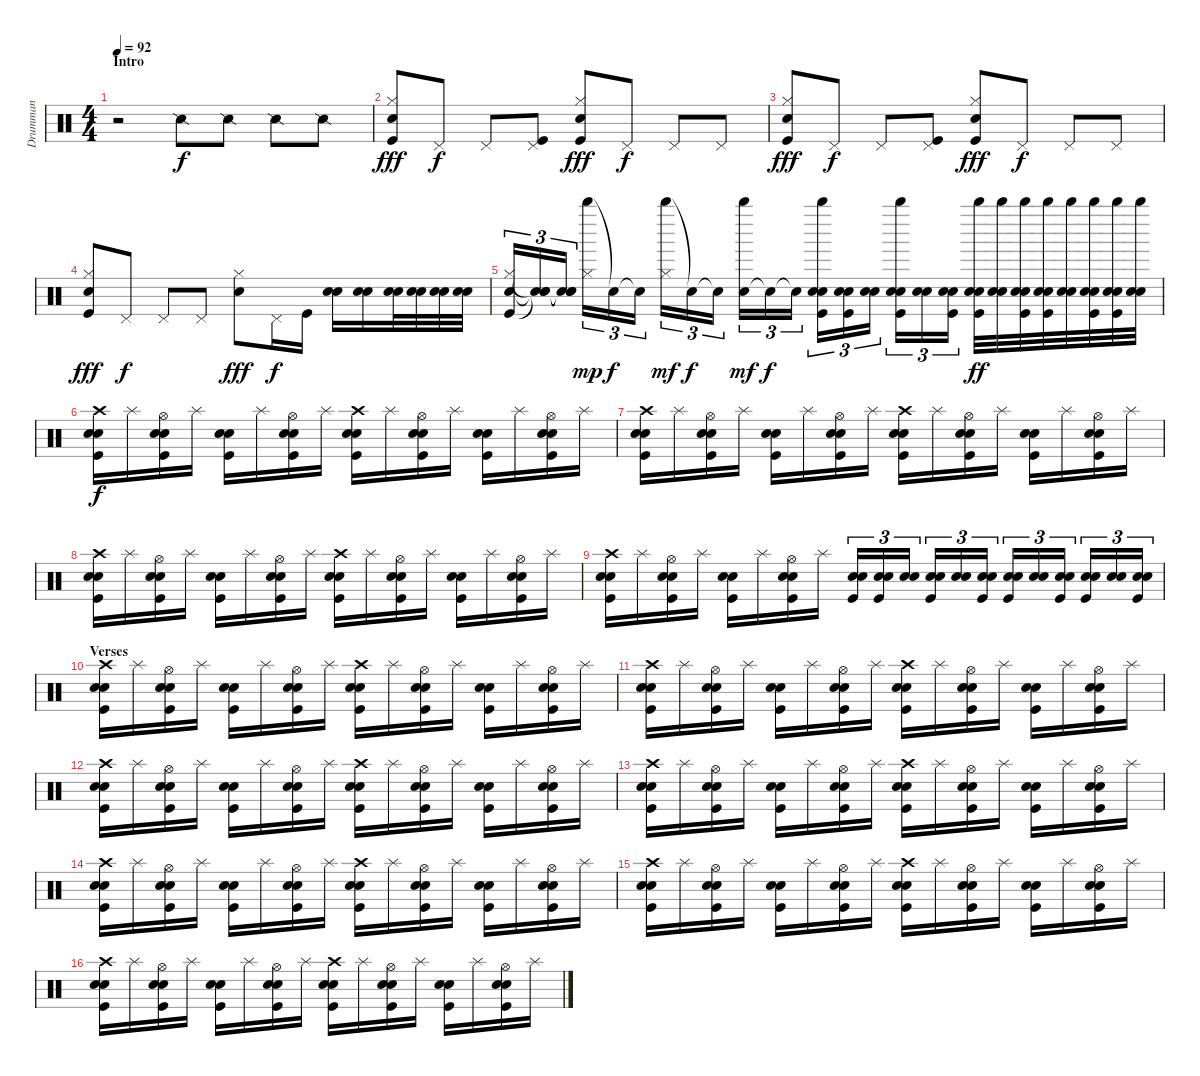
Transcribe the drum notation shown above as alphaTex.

\track ("Drumman" "Drumman") {instrument percussion}
\staff {score}
\articulation defaults
\ts (4 4)
\section ("" "Intro")
\tempo 92
\clef neutral
\ks c
r.2{dy f} "Snare (side stick) 2".8 "Snare (side stick) 2".8 "Snare (side stick) 2".8 "Snare (side stick) 2".8 |
("Hand Clap (hit)" "Hi-Hat (closed)" "Kick (hit)").8{dy fff} "Pedal Hi-Hat (hit)".8{dy f} "Pedal Hi-Hat (hit)".8 ("Pedal Hi-Hat (hit)" "Kick (hit)").8 ("Hand Clap (hit)" "Hi-Hat (closed)" "Kick (hit)").8{dy fff} "Pedal Hi-Hat (hit)".8{dy f} "Pedal Hi-Hat (hit)".8 "Pedal Hi-Hat (hit)".8 |
("Hand Clap (hit)" "Hi-Hat (closed)" "Kick (hit)").8{dy fff} "Pedal Hi-Hat (hit)".8{dy f} "Pedal Hi-Hat (hit)".8 ("Pedal Hi-Hat (hit)" "Kick (hit)").8 ("Hand Clap (hit)" "Hi-Hat (closed)" "Kick (hit)").8{dy fff} "Pedal Hi-Hat (hit)".8{dy f} "Pedal Hi-Hat (hit)".8 "Pedal Hi-Hat (hit)".8 |
("Hand Clap (hit)" "Hi-Hat (closed)" "Kick (hit)").8{dy fff} "Pedal Hi-Hat (hit)".8{dy f} "Pedal Hi-Hat (hit)".8 "Pedal Hi-Hat (hit)".8 ("Hand Clap (hit)" "Hi-Hat (closed)").8{dy fff} "Pedal Hi-Hat (hit)".16{dy f} "Kick (hit)".16 ("Snare (hit) 2" "Electric Snare (hit)").16 ("Snare (hit) 2" "Electric Snare (hit)").16 ("Snare (hit) 2" "Electric Snare (hit)").32 ("Snare (hit) 2" "Electric Snare (hit)").32 ("Snare (hit) 2" "Electric Snare (hit)").32 ("Snare (hit) 2" "Electric Snare (hit)").32 |
("Hand Clap (hit)" "Hi-Hat (closed)" "Kick (hit)").16{tu (3 2)} ("Snare (hit)"{t} "Snare (hit)"{t} "Snare (hit)"{t}).16{tu (3 2)} ("Snare (hit)"{t} "Snare (hit)"{t} "Snare (hit)"{t}).16{tu (3 2)} ("Whistle high (hit)" "Hi-Hat (closed)").16{tu (3 2) dy mp} "Snare (hit)"{t}.16{tu (3 2) dy f} "Snare (hit)"{t}.16{tu (3 2)} ("Whistle high (hit)" "Hi-Hat (closed)").16{tu (3 2) dy mf} "Snare (hit)"{t}.16{tu (3 2) dy f} "Snare (hit)"{t}.16{tu (3 2)} ("Hand Clap (hit)" "Whistle high (hit)").16{tu (3 2) dy mf} "Snare (hit)"{t}.16{tu (3 2) dy f} "Snare (hit)"{t}.16{tu (3 2)} ("Whistle high (hit)" "Snare (hit) 2" "Electric Snare (hit)" "Kick (hit)").16{tu (3 2)} ("Snare (hit) 2" "Electric Snare (hit)" "Kick (hit)").16{tu (3 2)} ("Snare (hit) 2" "Electric Snare (hit)").16{tu (3 2)} ("Whistle high (hit)" "Snare (hit) 2" "Electric Snare (hit)" "Kick (hit)").16{tu (3 2)} ("Snare (hit) 2" "Electric Snare (hit)").16{tu (3 2)} ("Snare (hit) 2" "Electric Snare (hit)" "Kick (hit)").16{tu (3 2)} ("Whistle high (hit)" "Snare (hit) 2" "Electric Snare (hit)" "Kick (hit)").32{dy ff balance 16} ("Whistle high (hit)" "Snare (hit) 2" "Electric Snare (hit)").32 ("Whistle high (hit)" "Snare (hit) 2" "Electric Snare (hit)" "Kick (hit)").32{balance 10} ("Whistle high (hit)" "Snare (hit) 2" "Electric Snare (hit)" "Kick (hit)").32 ("Whistle high (hit)" "Snare (hit) 2" "Electric Snare (hit)").32{balance 4} ("Whistle high (hit)" "Snare (hit) 2" "Electric Snare (hit)" "Kick (hit)").32 ("Whistle high (hit)" "Snare (hit) 2" "Electric Snare (hit)" "Kick (hit)").32{balance 0} ("Whistle high (hit)" "Snare (hit) 2" "Electric Snare (hit)").32 |
("Crash high (hit)" "Snare (hit) 2" "Electric Snare (hit)" "Kick (hit)").16{dy f balance 8} "Splash (hit)".16 ("Hi-Hat (open)" "Snare (hit) 2" "Electric Snare (hit)" "Kick (hit)").16 "Splash (hit)".16 ("Snare (hit) 2" "Electric Snare (hit)" "Kick (hit)").16 "Splash (hit)".16 ("Hi-Hat (open)" "Snare (hit) 2" "Electric Snare (hit)" "Kick (hit)").16 "Splash (hit)".16 ("Crash high (hit)" "Snare (hit) 2" "Electric Snare (hit)" "Kick (hit)").16 "Splash (hit)".16 ("Hi-Hat (open)" "Snare (hit) 2" "Electric Snare (hit)" "Kick (hit)").16 "Splash (hit)".16 ("Snare (hit) 2" "Electric Snare (hit)" "Kick (hit)").16 "Splash (hit)".16 ("Hi-Hat (open)" "Snare (hit) 2" "Electric Snare (hit)" "Kick (hit)").16 "Splash (hit)".16 |
("Crash high (hit)" "Snare (hit) 2" "Electric Snare (hit)" "Kick (hit)").16 "Splash (hit)".16 ("Hi-Hat (open)" "Snare (hit) 2" "Electric Snare (hit)" "Kick (hit)").16 "Splash (hit)".16 ("Snare (hit) 2" "Electric Snare (hit)" "Kick (hit)").16 "Splash (hit)".16 ("Hi-Hat (open)" "Snare (hit) 2" "Electric Snare (hit)" "Kick (hit)").16 "Splash (hit)".16 ("Crash high (hit)" "Snare (hit) 2" "Electric Snare (hit)" "Kick (hit)").16 "Splash (hit)".16 ("Hi-Hat (open)" "Snare (hit) 2" "Electric Snare (hit)" "Kick (hit)").16 "Splash (hit)".16 ("Snare (hit) 2" "Electric Snare (hit)" "Kick (hit)").16 "Splash (hit)".16 ("Hi-Hat (open)" "Snare (hit) 2" "Electric Snare (hit)" "Kick (hit)").16 "Splash (hit)".16 |
("Crash high (hit)" "Snare (hit) 2" "Electric Snare (hit)" "Kick (hit)").16 "Splash (hit)".16 ("Hi-Hat (open)" "Snare (hit) 2" "Electric Snare (hit)" "Kick (hit)").16 "Splash (hit)".16 ("Snare (hit) 2" "Electric Snare (hit)" "Kick (hit)").16 "Splash (hit)".16 ("Hi-Hat (open)" "Snare (hit) 2" "Electric Snare (hit)" "Kick (hit)").16 "Splash (hit)".16 ("Crash high (hit)" "Snare (hit) 2" "Electric Snare (hit)" "Kick (hit)").16 "Splash (hit)".16 ("Hi-Hat (open)" "Snare (hit) 2" "Electric Snare (hit)" "Kick (hit)").16 "Splash (hit)".16 ("Snare (hit) 2" "Electric Snare (hit)" "Kick (hit)").16 "Splash (hit)".16 ("Hi-Hat (open)" "Snare (hit) 2" "Electric Snare (hit)" "Kick (hit)").16 "Splash (hit)".16 |
("Crash high (hit)" "Snare (hit) 2" "Electric Snare (hit)" "Kick (hit)").16 "Splash (hit)".16 ("Hi-Hat (open)" "Snare (hit) 2" "Electric Snare (hit)" "Kick (hit)").16 "Splash (hit)".16 ("Snare (hit) 2" "Electric Snare (hit)" "Kick (hit)").16 "Splash (hit)".16 ("Hi-Hat (open)" "Snare (hit) 2" "Electric Snare (hit)" "Kick (hit)").16 "Splash (hit)".16 ("Snare (hit) 2" "Electric Snare (hit)" "Kick (hit)").16{tu (3 2)} ("Snare (hit) 2" "Electric Snare (hit)" "Kick (hit)").16{tu (3 2)} ("Snare (hit) 2" "Electric Snare (hit)").16{tu (3 2)} ("Snare (hit) 2" "Electric Snare (hit)" "Kick (hit)").16{tu (3 2)} ("Snare (hit) 2" "Electric Snare (hit)").16{tu (3 2)} ("Snare (hit) 2" "Electric Snare (hit)" "Kick (hit)").16{tu (3 2)} ("Snare (hit) 2" "Electric Snare (hit)" "Kick (hit)").16{tu (3 2)} ("Snare (hit) 2" "Electric Snare (hit)").16{tu (3 2)} ("Snare (hit) 2" "Electric Snare (hit)" "Kick (hit)").16{tu (3 2)} ("Snare (hit) 2" "Electric Snare (hit)" "Kick (hit)").16{tu (3 2)} ("Snare (hit) 2" "Electric Snare (hit)").16{tu (3 2)} ("Snare (hit) 2" "Electric Snare (hit)" "Kick (hit)").16{tu (3 2)} |
\section ("" "Verses")
("Crash high (hit)" "Snare (hit) 2" "Electric Snare (hit)" "Kick (hit)").16 "Splash (hit)".16 ("Hi-Hat (open)" "Snare (hit) 2" "Electric Snare (hit)" "Kick (hit)").16 "Splash (hit)".16 ("Snare (hit) 2" "Electric Snare (hit)" "Kick (hit)").16 "Splash (hit)".16 ("Hi-Hat (open)" "Snare (hit) 2" "Electric Snare (hit)" "Kick (hit)").16 "Splash (hit)".16 ("Crash high (hit)" "Snare (hit) 2" "Electric Snare (hit)" "Kick (hit)").16 "Splash (hit)".16 ("Hi-Hat (open)" "Snare (hit) 2" "Electric Snare (hit)" "Kick (hit)").16 "Splash (hit)".16 ("Snare (hit) 2" "Electric Snare (hit)" "Kick (hit)").16 "Splash (hit)".16 ("Hi-Hat (open)" "Snare (hit) 2" "Electric Snare (hit)" "Kick (hit)").16 "Splash (hit)".16 |
("Crash high (hit)" "Snare (hit) 2" "Electric Snare (hit)" "Kick (hit)").16 "Splash (hit)".16 ("Hi-Hat (open)" "Snare (hit) 2" "Electric Snare (hit)" "Kick (hit)").16 "Splash (hit)".16 ("Snare (hit) 2" "Electric Snare (hit)" "Kick (hit)").16 "Splash (hit)".16 ("Hi-Hat (open)" "Snare (hit) 2" "Electric Snare (hit)" "Kick (hit)").16 "Splash (hit)".16 ("Crash high (hit)" "Snare (hit) 2" "Electric Snare (hit)" "Kick (hit)").16 "Splash (hit)".16 ("Hi-Hat (open)" "Snare (hit) 2" "Electric Snare (hit)" "Kick (hit)").16 "Splash (hit)".16 ("Snare (hit) 2" "Electric Snare (hit)" "Kick (hit)").16 "Splash (hit)".16 ("Hi-Hat (open)" "Snare (hit) 2" "Electric Snare (hit)" "Kick (hit)").16 "Splash (hit)".16 |
("Crash high (hit)" "Snare (hit) 2" "Electric Snare (hit)" "Kick (hit)").16 "Splash (hit)".16 ("Hi-Hat (open)" "Snare (hit) 2" "Electric Snare (hit)" "Kick (hit)").16 "Splash (hit)".16 ("Snare (hit) 2" "Electric Snare (hit)" "Kick (hit)").16 "Splash (hit)".16 ("Hi-Hat (open)" "Snare (hit) 2" "Electric Snare (hit)" "Kick (hit)").16 "Splash (hit)".16 ("Crash high (hit)" "Snare (hit) 2" "Electric Snare (hit)" "Kick (hit)").16 "Splash (hit)".16 ("Hi-Hat (open)" "Snare (hit) 2" "Electric Snare (hit)" "Kick (hit)").16 "Splash (hit)".16 ("Snare (hit) 2" "Electric Snare (hit)" "Kick (hit)").16 "Splash (hit)".16 ("Hi-Hat (open)" "Snare (hit) 2" "Electric Snare (hit)" "Kick (hit)").16 "Splash (hit)".16 |
("Crash high (hit)" "Snare (hit) 2" "Electric Snare (hit)" "Kick (hit)").16 "Splash (hit)".16 ("Hi-Hat (open)" "Snare (hit) 2" "Electric Snare (hit)" "Kick (hit)").16 "Splash (hit)".16 ("Snare (hit) 2" "Electric Snare (hit)" "Kick (hit)").16 "Splash (hit)".16 ("Hi-Hat (open)" "Snare (hit) 2" "Electric Snare (hit)" "Kick (hit)").16 "Splash (hit)".16 ("Crash high (hit)" "Snare (hit) 2" "Electric Snare (hit)" "Kick (hit)").16 "Splash (hit)".16 ("Hi-Hat (open)" "Snare (hit) 2" "Electric Snare (hit)" "Kick (hit)").16 "Splash (hit)".16 ("Snare (hit) 2" "Electric Snare (hit)" "Kick (hit)").16 "Splash (hit)".16 ("Hi-Hat (open)" "Snare (hit) 2" "Electric Snare (hit)" "Kick (hit)").16 "Splash (hit)".16 |
("Crash high (hit)" "Snare (hit) 2" "Electric Snare (hit)" "Kick (hit)").16 "Splash (hit)".16 ("Hi-Hat (open)" "Snare (hit) 2" "Electric Snare (hit)" "Kick (hit)").16 "Splash (hit)".16 ("Snare (hit) 2" "Electric Snare (hit)" "Kick (hit)").16 "Splash (hit)".16 ("Hi-Hat (open)" "Snare (hit) 2" "Electric Snare (hit)" "Kick (hit)").16 "Splash (hit)".16 ("Crash high (hit)" "Snare (hit) 2" "Electric Snare (hit)" "Kick (hit)").16 "Splash (hit)".16 ("Hi-Hat (open)" "Snare (hit) 2" "Electric Snare (hit)" "Kick (hit)").16 "Splash (hit)".16 ("Snare (hit) 2" "Electric Snare (hit)" "Kick (hit)").16 "Splash (hit)".16 ("Hi-Hat (open)" "Snare (hit) 2" "Electric Snare (hit)" "Kick (hit)").16 "Splash (hit)".16 |
("Crash high (hit)" "Snare (hit) 2" "Electric Snare (hit)" "Kick (hit)").16 "Splash (hit)".16 ("Hi-Hat (open)" "Snare (hit) 2" "Electric Snare (hit)" "Kick (hit)").16 "Splash (hit)".16 ("Snare (hit) 2" "Electric Snare (hit)" "Kick (hit)").16 "Splash (hit)".16 ("Hi-Hat (open)" "Snare (hit) 2" "Electric Snare (hit)" "Kick (hit)").16 "Splash (hit)".16 ("Crash high (hit)" "Snare (hit) 2" "Electric Snare (hit)" "Kick (hit)").16 "Splash (hit)".16 ("Hi-Hat (open)" "Snare (hit) 2" "Electric Snare (hit)" "Kick (hit)").16 "Splash (hit)".16 ("Snare (hit) 2" "Electric Snare (hit)" "Kick (hit)").16 "Splash (hit)".16 ("Hi-Hat (open)" "Snare (hit) 2" "Electric Snare (hit)" "Kick (hit)").16 "Splash (hit)".16 |
("Crash high (hit)" "Snare (hit) 2" "Electric Snare (hit)" "Kick (hit)").16 "Splash (hit)".16 ("Hi-Hat (open)" "Snare (hit) 2" "Electric Snare (hit)" "Kick (hit)").16 "Splash (hit)".16 ("Snare (hit) 2" "Electric Snare (hit)" "Kick (hit)").16 "Splash (hit)".16 ("Hi-Hat (open)" "Snare (hit) 2" "Electric Snare (hit)" "Kick (hit)").16 "Splash (hit)".16 ("Crash high (hit)" "Snare (hit) 2" "Electric Snare (hit)" "Kick (hit)").16 "Splash (hit)".16 ("Hi-Hat (open)" "Snare (hit) 2" "Electric Snare (hit)" "Kick (hit)").16 "Splash (hit)".16 ("Snare (hit) 2" "Electric Snare (hit)" "Kick (hit)").16 "Splash (hit)".16 ("Hi-Hat (open)" "Snare (hit) 2" "Electric Snare (hit)" "Kick (hit)").16 "Splash (hit)".16
